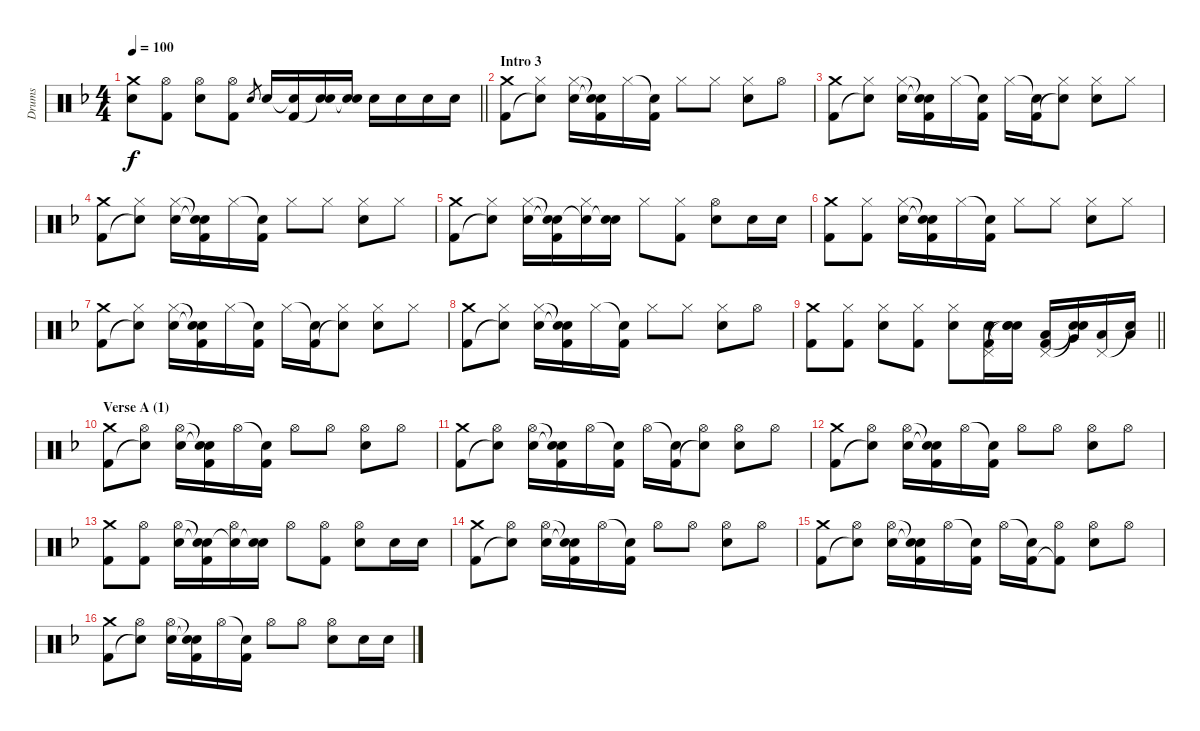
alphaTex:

\track ("Drums" "Drums") {instrument percussion}
\staff {score}
\articulation defaults
\ts (4 4)
\tempo 100
\clef neutral
\barLineRight lightlight
\ks dminor
("Crash medium (hit)" "Electric Snare (hit)").8{dy f} ("Hi-Hat (open)" "Kick (hit) 2").8 ("Hi-Hat (open)" "Electric Snare (hit)").8 ("Hi-Hat (open)" "Kick (hit) 2").8 "Electric Snare (hit)".8{gr} "Electric Snare (hit)".16 ("Snare (hit)"{t} "Kick (hit) 2").16 ("Electric Snare (hit)" "Snare (hit)"{t}).16 ("Electric Snare (hit)" "Snare (hit)"{t}).16 "Electric Snare (hit)".16 "Electric Snare (hit)".16 "Electric Snare (hit)".16 "Electric Snare (hit)".16 |
\section ("" "Intro 3")
("Crash medium (hit)" "Kick (hit) 2").8 ("Hi-Hat (closed)" "Snare (hit)"{t}).8 ("Hi-Hat (closed)" "Electric Snare (hit)").16 ("Snare (hit)"{t} "Snare (hit)"{t} "Kick (hit) 2").16 "Hi-Hat (closed)".16 ("Snare (hit)"{t} "Kick (hit) 2").16 "Hi-Hat (closed)".8 "Hi-Hat (closed)".8 ("Hi-Hat (closed)" "Electric Snare (hit)").8 "Hi-Hat (open)".8 |
("Crash medium (hit)" "Kick (hit) 2").8 ("Hi-Hat (closed)" "Snare (hit)"{t}).8 ("Hi-Hat (closed)" "Electric Snare (hit)").16 ("Snare (hit)"{t} "Snare (hit)"{t} "Kick (hit) 2").16 "Hi-Hat (closed)".16 ("Snare (hit)"{t} "Kick (hit) 2").16 "Hi-Hat (closed)".16 ("Snare (hit)"{t} "Kick (hit) 2").16 ("Hi-Hat (closed)" "Snare (hit)"{t}).8 ("Hi-Hat (closed)" "Electric Snare (hit)").8 "Hi-Hat (closed)".8 |
("Crash medium (hit)" "Kick (hit) 2").8 ("Hi-Hat (closed)" "Snare (hit)"{t}).8 ("Hi-Hat (closed)" "Electric Snare (hit)").16 ("Snare (hit)"{t} "Snare (hit)"{t} "Kick (hit) 2").16 "Hi-Hat (closed)".16 ("Snare (hit)"{t} "Kick (hit) 2").16 "Hi-Hat (closed)".8 "Hi-Hat (closed)".8 ("Hi-Hat (closed)" "Electric Snare (hit)").8 "Hi-Hat (closed)".8 |
("Crash medium (hit)" "Kick (hit) 2").8 ("Hi-Hat (closed)" "Snare (hit)"{t}).8 ("Hi-Hat (closed)" "Electric Snare (hit)").16 ("Snare (hit)"{t} "Snare (hit)"{t} "Kick (hit) 2").16 ("Hi-Hat (closed)" "Snare (hit)"{t}).16 ("Electric Snare (hit)" "Snare (hit)"{t}).16 "Hi-Hat (closed)".8 ("Hi-Hat (closed)" "Kick (hit) 2").8 ("Hi-Hat (open)" "Electric Snare (hit)").8 "Electric Snare (hit)".16 "Electric Snare (hit)".16 |
("Crash medium (hit)" "Kick (hit) 2").8 ("Hi-Hat (closed)" "Kick (hit) 2").8 ("Hi-Hat (closed)" "Electric Snare (hit)").16 ("Snare (hit)"{t} "Snare (hit)"{t} "Kick (hit) 2").16 "Hi-Hat (closed)".16 ("Snare (hit)"{t} "Kick (hit) 2").16 "Hi-Hat (closed)".8 "Hi-Hat (closed)".8 ("Hi-Hat (closed)" "Electric Snare (hit)").8 "Hi-Hat (closed)".8 |
("Crash medium (hit)" "Kick (hit) 2").8 ("Hi-Hat (closed)" "Snare (hit)"{t}).8 ("Hi-Hat (closed)" "Electric Snare (hit)").16 ("Snare (hit)"{t} "Snare (hit)"{t} "Kick (hit) 2").16 "Hi-Hat (closed)".16 ("Snare (hit)"{t} "Kick (hit) 2").16 "Hi-Hat (closed)".16 ("Snare (hit)"{t} "Kick (hit) 2").16 ("Hi-Hat (closed)" "Snare (hit)"{t}).8 ("Hi-Hat (closed)" "Electric Snare (hit)").8 "Hi-Hat (closed)".8 |
("Crash medium (hit)" "Kick (hit) 2").8 ("Hi-Hat (closed)" "Snare (hit)"{t}).8 ("Hi-Hat (closed)" "Electric Snare (hit)").16 ("Snare (hit)"{t} "Snare (hit)"{t} "Kick (hit) 2").16 "Hi-Hat (closed)".16 ("Snare (hit)"{t} "Kick (hit) 2").16 "Hi-Hat (closed)".8 "Hi-Hat (closed)".8 ("Hi-Hat (closed)" "Electric Snare (hit)").8 "Hi-Hat (open)".8 |
\barLineRight lightlight
("Crash medium (hit)" "Kick (hit) 2").8 ("Hi-Hat (closed)" "Kick (hit) 2").8 ("Hi-Hat (closed)" "Electric Snare (hit)").8 ("Hi-Hat (closed)" "Kick (hit) 2").8 ("Hi-Hat (closed)" "Electric Snare (hit)").8 ("Pedal Hi-Hat (hit)" "Electric Snare (hit)" "Kick (hit) 2").16 ("Snare (hit)"{t} "Electric Snare (hit)" "Snare (hit)"{t}).16 ("Pedal Hi-Hat (hit)" "Low Tom (hit)" "Kick (hit) 2").16 ("Snare (hit)"{t} "Very Low Tom (hit)" "Snare (hit)"{t}).16 ("Pedal Hi-Hat (hit)" "Low Floor Tom (hit)").16 ("Snare (hit)"{t} "Low Floor Tom (hit)").16 |
\section ("" "Verse A (1)")
("Crash medium (hit)" "Kick (hit) 2").8 ("Hi-Hat (open)" "Snare (hit)"{t}).8 ("Hi-Hat (open)" "Electric Snare (hit)").16 ("Snare (hit)"{t} "Snare (hit)"{t} "Kick (hit) 2").16 "Hi-Hat (open)".16 ("Snare (hit)"{t} "Kick (hit) 2").16 "Hi-Hat (open)".8 "Hi-Hat (open)".8 ("Hi-Hat (open)" "Electric Snare (hit)").8 "Hi-Hat (open)".8 |
("Crash medium (hit)" "Kick (hit) 2").8 ("Hi-Hat (open)" "Snare (hit)"{t}).8 ("Hi-Hat (open)" "Electric Snare (hit)").16 ("Snare (hit)"{t} "Snare (hit)"{t} "Kick (hit) 2").16 "Hi-Hat (open)".16 ("Snare (hit)"{t} "Kick (hit) 2").16 "Hi-Hat (open)".16 ("Snare (hit)"{t} "Kick (hit) 2").16 ("Hi-Hat (open)" "Snare (hit)"{t}).8 ("Hi-Hat (open)" "Electric Snare (hit)").8 "Hi-Hat (open)".8 |
("Crash medium (hit)" "Kick (hit) 2").8 ("Hi-Hat (open)" "Snare (hit)"{t}).8 ("Hi-Hat (open)" "Electric Snare (hit)").16 ("Snare (hit)"{t} "Snare (hit)"{t} "Kick (hit) 2").16 "Hi-Hat (open)".16 ("Snare (hit)"{t} "Kick (hit) 2").16 "Hi-Hat (open)".8 "Hi-Hat (open)".8 ("Hi-Hat (open)" "Electric Snare (hit)").8 "Hi-Hat (open)".8 |
("Crash medium (hit)" "Kick (hit) 2").8 ("Hi-Hat (open)" "Kick (hit) 2").8 ("Hi-Hat (open)" "Electric Snare (hit)").16 ("Snare (hit)"{t} "Snare (hit)"{t} "Kick (hit) 2").16 ("Hi-Hat (open)" "Snare (hit)"{t}).16 ("Electric Snare (hit)" "Snare (hit)"{t}).16 "Hi-Hat (open)".8 ("Hi-Hat (open)" "Kick (hit) 2").8 ("Hi-Hat (open)" "Electric Snare (hit)").8 "Electric Snare (hit)".16 "Electric Snare (hit)".16 |
("Crash medium (hit)" "Kick (hit) 2").8 ("Hi-Hat (open)" "Snare (hit)"{t}).8 ("Hi-Hat (open)" "Electric Snare (hit)").16 ("Snare (hit)"{t} "Snare (hit)"{t} "Kick (hit) 2").16 "Hi-Hat (open)".16 ("Snare (hit)"{t} "Kick (hit) 2").16 "Hi-Hat (open)".8 "Hi-Hat (open)".8 ("Hi-Hat (open)" "Electric Snare (hit)").8 "Hi-Hat (open)".8 |
("Crash medium (hit)" "Kick (hit) 2").8 ("Hi-Hat (open)" "Snare (hit)"{t}).8 ("Hi-Hat (open)" "Electric Snare (hit)").16 ("Snare (hit)"{t} "Snare (hit)"{t} "Kick (hit) 2").16 "Hi-Hat (open)".16 ("Snare (hit)"{t} "Kick (hit) 2").16 "Hi-Hat (open)".16 ("Snare (hit)"{t} "Kick (hit) 2").16 ("Hi-Hat (open)" "Kick (hit) 2"{t}).8 ("Hi-Hat (open)" "Electric Snare (hit)").8 "Hi-Hat (open)".8 |
("Crash medium (hit)" "Kick (hit) 2").8 ("Hi-Hat (open)" "Snare (hit)"{t}).8 ("Hi-Hat (open)" "Electric Snare (hit)").16 ("Snare (hit)"{t} "Snare (hit)"{t} "Kick (hit) 2").16 "Hi-Hat (open)".16 ("Snare (hit)"{t} "Kick (hit) 2").16 "Hi-Hat (open)".8 "Hi-Hat (open)".8 ("Hi-Hat (open)" "Electric Snare (hit)").8 "Electric Snare (hit)".16 "Electric Snare (hit)".16
